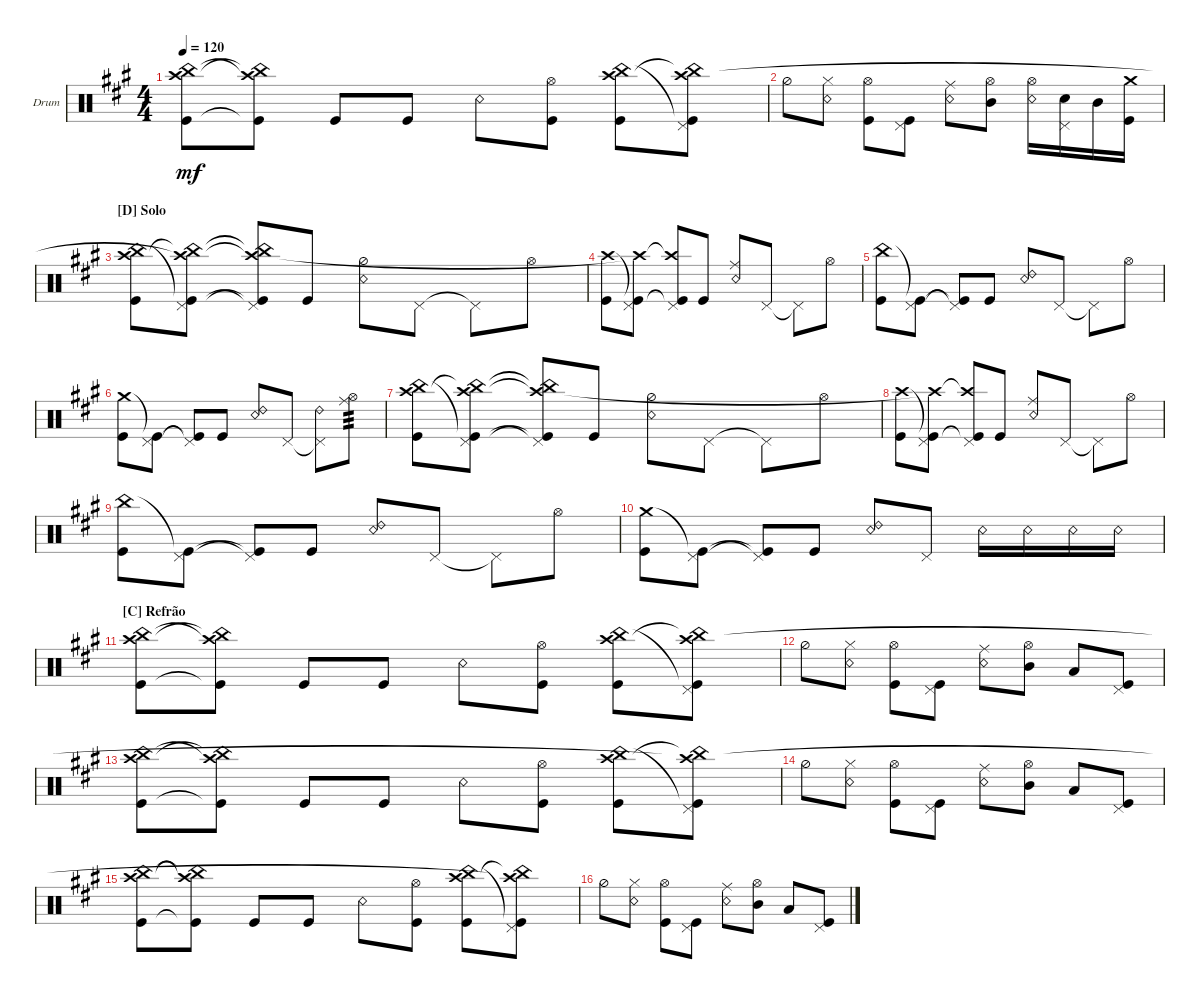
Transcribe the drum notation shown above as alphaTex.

\defaultSystemsLayout 4
\bracketExtendMode groupsimilarinstruments
\firstSystemTrackNameOrientation horizontal
\otherSystemsTrackNameOrientation horizontal
\track ("Drum" "Drum") {multiBarRest instrument percussion}
\staff {score}
\articulation defaults
\ts (4 4)
\tempo 120
\clef neutral
\ks a
("Kick (hit)" "Crash high (hit)" "China (hit)").8{dy mf} ("Kick (hit)"{t} "China (hit)"{t} "Crash high (hit)"{t}).8 "Kick (hit)".8 "Kick (hit)".8 "Snare (rim shot)".8 ("Kick (hit)" "Hi-Hat (open)").8 ("Kick (hit)" "China (hit)" "Crash high (hit)").8 ("Pedal Hi-Hat (hit)" "Kick (hit)"{t} "China (hit)"{t} "Crash high (hit)"{t}).8 |
"Hi-Hat (half)".8 ("Snare (rim shot)" "Hi-Hat (closed)").8 ("Kick (hit)" "Hi-Hat (open)").8 ("Kick (hit)" "Pedal Hi-Hat (hit)").8 ("Snare (rim shot)" "Ride (middle)").8 ("Mid Tom (hit)" "Hi-Hat (open)").8 ("Snare (rim shot)" "Hi-Hat (open)").16 ("Snare (hit) 2" "Pedal Hi-Hat (hit)").16 "Mid Tom (hit)".16 ("Kick (hit)" "Crash medium (hit)").16 |
\section ("D" "Solo")
("Kick (hit)" "China (hit)" "Crash high (hit)").8 ("Pedal Hi-Hat (hit)" "Kick (hit)"{t} "China (hit)"{t} "Crash high (hit)"{t}).8 ("Kick (hit)"{t} "Pedal Hi-Hat (hit)"{t} "China (hit)"{t} "Crash high (hit)"{t}).8 "Kick (hit)".8 ("Snare (rim shot)" "Hi-Hat (half)").8 "Pedal Hi-Hat (hit)".8 "Pedal Hi-Hat (hit)"{t}.8 "Hi-Hat (open)".8 |
("Kick (hit)" "Crash high (hit)").8 ("Pedal Hi-Hat (hit)" "Kick (hit)"{t} "Crash high (hit)"{t}).8 ("Kick (hit)"{t} "Pedal Hi-Hat (hit)"{t} "Crash high (hit)"{t}).8 "Kick (hit)".8 ("Snare (rim shot)" "Ride (middle)").8 "Pedal Hi-Hat (hit)".8 "Pedal Hi-Hat (hit)"{t}.8 "Hi-Hat (open)".8 |
("Kick (hit)" "China (hit)").8 ("Pedal Hi-Hat (hit)" "Kick (hit)"{t}).8 ("Kick (hit)"{t} "Pedal Hi-Hat (hit)"{t}).8 "Kick (hit)".8 ("Snare (rim shot)" "Ride (bell) 2").8 "Pedal Hi-Hat (hit)".8 "Pedal Hi-Hat (hit)"{t}.8 "Hi-Hat (open)".8 |
("Kick (hit)" "Crash medium (hit)").8 ("Pedal Hi-Hat (hit)" "Kick (hit)"{t}).8 ("Kick (hit)"{t} "Pedal Hi-Hat (hit)"{t}).8 "Kick (hit)".8 ("Snare (rim shot)" "Ride (bell) 2").8 "Pedal Hi-Hat (hit)".8 ("Pedal Hi-Hat (hit)"{t} "Ride (bell) 2").8 ("Hi-Hat (open)" "Ride (middle)").8{tp 3} |
("Kick (hit)" "China (hit)" "Crash high (hit)").8 ("Pedal Hi-Hat (hit)" "Kick (hit)"{t} "China (hit)"{t} "Crash high (hit)").8 ("Kick (hit)"{t} "Pedal Hi-Hat (hit)"{t} "China (hit)"{t} "Crash high (hit)"{t}).8 "Kick (hit)".8 ("Snare (rim shot)" "Hi-Hat (half)").8 "Pedal Hi-Hat (hit)".8 "Pedal Hi-Hat (hit)"{t}.8 "Hi-Hat (open)".8 |
("Kick (hit)" "Crash high (hit)").8 ("Pedal Hi-Hat (hit)" "Kick (hit)"{t} "Crash high (hit)"{t}).8 ("Kick (hit)"{t} "Pedal Hi-Hat (hit)"{t} "Crash high (hit)"{t}).8 "Kick (hit)".8 ("Snare (rim shot)" "Ride (middle)").8 "Pedal Hi-Hat (hit)".8 "Pedal Hi-Hat (hit)"{t}.8 "Hi-Hat (open)".8 |
("Kick (hit)" "China (hit)").8 ("Pedal Hi-Hat (hit)" "Kick (hit)"{t}).8 ("Kick (hit)"{t} "Pedal Hi-Hat (hit)"{t}).8 "Kick (hit)".8 ("Snare (rim shot)" "Ride (bell) 2").8 "Pedal Hi-Hat (hit)".8 "Pedal Hi-Hat (hit)"{t}.8 "Hi-Hat (open)".8 |
("Kick (hit)" "Crash medium (hit)").8 ("Pedal Hi-Hat (hit)" "Kick (hit)"{t}).8 ("Kick (hit)"{t} "Pedal Hi-Hat (hit)"{t}).8 "Kick (hit)".8 ("Snare (rim shot)" "Ride (bell) 2").8 "Pedal Hi-Hat (hit)".8 "Snare (rim shot)".16 "Snare (rim shot)".16 "Snare (rim shot)".16 "Snare (rim shot)".16 |
\section ("C" "Refrão")
("Kick (hit)" "Crash high (hit)" "China (hit)").8 ("Kick (hit)"{t} "China (hit)"{t} "Crash high (hit)"{t}).8 "Kick (hit)".8 "Kick (hit)".8 "Snare (rim shot)".8 ("Kick (hit)" "Hi-Hat (open)").8 ("Kick (hit)" "China (hit)" "Crash high (hit)").8 ("Pedal Hi-Hat (hit)" "Kick (hit)"{t} "China (hit)"{t} "Crash high (hit)").8 |
"Hi-Hat (half)".8 ("Snare (rim shot)" "Hi-Hat (closed)").8 ("Kick (hit)" "Hi-Hat (open)").8 ("Kick (hit)" "Pedal Hi-Hat (hit)").8 ("Snare (rim shot)" "Ride (middle)").8 ("Mid Tom (hit)" "Hi-Hat (open)").8 "Low Tom (hit)".8 ("Kick (hit)" "Pedal Hi-Hat (hit)").8 |
("Kick (hit)" "Crash high (hit)" "China (hit)").8 ("Kick (hit)"{t} "China (hit)"{t} "Crash high (hit)"{t}).8 "Kick (hit)".8 "Kick (hit)".8 "Snare (rim shot)".8 ("Kick (hit)" "Hi-Hat (open)").8 ("Kick (hit)" "China (hit)" "Crash high (hit)").8 ("Pedal Hi-Hat (hit)" "Kick (hit)"{t} "China (hit)"{t} "Crash high (hit)"{t}).8 |
"Hi-Hat (half)".8 ("Snare (rim shot)" "Hi-Hat (closed)").8 ("Kick (hit)" "Hi-Hat (open)").8 ("Kick (hit)" "Pedal Hi-Hat (hit)").8 ("Snare (rim shot)" "Ride (middle)").8 ("Mid Tom (hit)" "Hi-Hat (open)").8 "Low Tom (hit)".8 ("Kick (hit)" "Pedal Hi-Hat (hit)").8 |
("Kick (hit)" "Crash high (hit)" "China (hit)").8 ("Kick (hit)"{t} "China (hit)"{t} "Crash high (hit)"{t}).8 "Kick (hit)".8 "Kick (hit)".8 "Snare (rim shot)".8 ("Kick (hit)" "Hi-Hat (open)").8 ("Kick (hit)" "China (hit)" "Crash high (hit)").8 ("Pedal Hi-Hat (hit)" "Kick (hit)"{t} "China (hit)"{t} "Crash high (hit)"{t}).8 |
"Hi-Hat (half)".8 ("Snare (rim shot)" "Hi-Hat (closed)").8 ("Kick (hit)" "Hi-Hat (open)").8 ("Kick (hit)" "Pedal Hi-Hat (hit)").8 ("Snare (rim shot)" "Ride (middle)").8 ("Mid Tom (hit)" "Hi-Hat (open)").8 "Low Tom (hit)".8 ("Kick (hit)" "Pedal Hi-Hat (hit)").8
